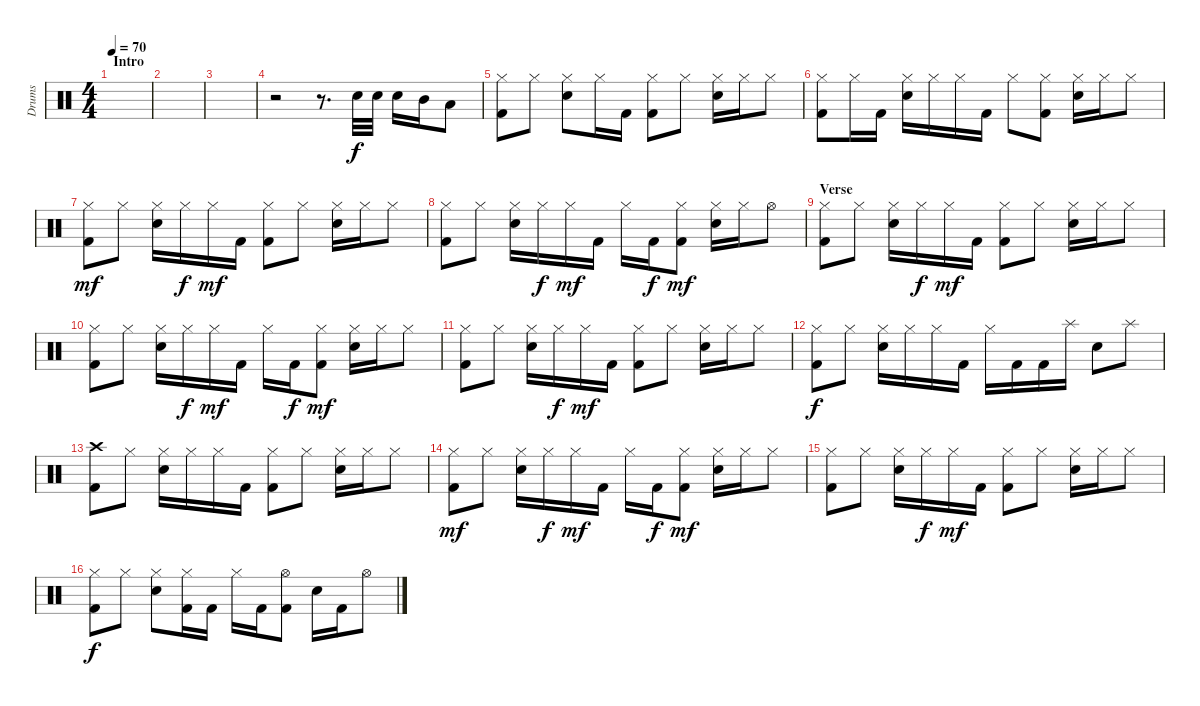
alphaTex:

\track ("Drums" "Drums") {instrument percussion}
\staff {score}
\articulation defaults
\ts (4 4)
\section ("" "Intro")
\tempo 70
\clef neutral
\ks c
|
|
|
r.2 r.8{d} "Electric Snare (hit)".32 "Electric Snare (hit)".32 "Electric Snare (hit)".16 "Mid Tom (hit)".16 "Low Tom (hit)".8 |
("Hi-Hat (closed)" "Kick (hit) 2").8 "Hi-Hat (closed)".8 ("Hi-Hat (closed)" "Electric Snare (hit)").8 "Hi-Hat (closed)".16 "Kick (hit) 2".16 ("Hi-Hat (closed)" "Kick (hit) 2").8 "Hi-Hat (closed)".8 ("Hi-Hat (closed)" "Electric Snare (hit)").16 "Hi-Hat (closed)".16 "Hi-Hat (closed)".8 |
("Hi-Hat (closed)" "Kick (hit) 2").8{dy f} "Hi-Hat (closed)".16 "Kick (hit) 2".16 ("Hi-Hat (closed)" "Electric Snare (hit)").16 "Hi-Hat (closed)".16 "Hi-Hat (closed)".16 "Kick (hit) 2".16 "Hi-Hat (closed)".8 ("Hi-Hat (closed)" "Kick (hit) 2").8 ("Hi-Hat (closed)" "Electric Snare (hit)").16 "Hi-Hat (closed)".16 "Hi-Hat (closed)".8 |
("Hi-Hat (closed)" "Kick (hit) 2").8{dy mf} "Hi-Hat (closed)".8 ("Hi-Hat (closed)" "Electric Snare (hit)").16 "Hi-Hat (closed)".16{dy f} "Hi-Hat (closed)".16{dy mf} "Kick (hit) 2".16 ("Hi-Hat (closed)" "Kick (hit) 2").8 "Hi-Hat (closed)".8 ("Hi-Hat (closed)" "Electric Snare (hit)").16 "Hi-Hat (closed)".16 "Hi-Hat (closed)".8 |
("Hi-Hat (closed)" "Kick (hit) 2").8 "Hi-Hat (closed)".8 ("Hi-Hat (closed)" "Electric Snare (hit)").16 "Hi-Hat (closed)".16{dy f} "Hi-Hat (closed)".16{dy mf} "Kick (hit) 2".16 "Hi-Hat (closed)".16 "Kick (hit) 2".16{dy f} ("Hi-Hat (closed)" "Kick (hit) 2").8{dy mf} ("Hi-Hat (closed)" "Electric Snare (hit)").16 "Hi-Hat (closed)".16 "Hi-Hat (open)".8 |
\section ("" "Verse")
("Hi-Hat (closed)" "Kick (hit) 2").8 "Hi-Hat (closed)".8 ("Hi-Hat (closed)" "Electric Snare (hit)").16 "Hi-Hat (closed)".16{dy f} "Hi-Hat (closed)".16{dy mf} "Kick (hit) 2".16 ("Hi-Hat (closed)" "Kick (hit) 2").8 "Hi-Hat (closed)".8 ("Hi-Hat (closed)" "Electric Snare (hit)").16 "Hi-Hat (closed)".16 "Hi-Hat (closed)".8 |
("Hi-Hat (closed)" "Kick (hit) 2").8 "Hi-Hat (closed)".8 ("Hi-Hat (closed)" "Electric Snare (hit)").16 "Hi-Hat (closed)".16{dy f} "Hi-Hat (closed)".16{dy mf} "Kick (hit) 2".16 "Hi-Hat (closed)".16 "Kick (hit) 2".16{dy f} ("Hi-Hat (closed)" "Kick (hit) 2").8{dy mf} ("Hi-Hat (closed)" "Electric Snare (hit)").16 "Hi-Hat (closed)".16 "Hi-Hat (closed)".8 |
("Hi-Hat (closed)" "Kick (hit) 2").8 "Hi-Hat (closed)".8 ("Hi-Hat (closed)" "Electric Snare (hit)").16 "Hi-Hat (closed)".16{dy f} "Hi-Hat (closed)".16{dy mf} "Kick (hit) 2".16 ("Hi-Hat (closed)" "Kick (hit) 2").8 "Hi-Hat (closed)".8 ("Hi-Hat (closed)" "Electric Snare (hit)").16 "Hi-Hat (closed)".16 "Hi-Hat (closed)".8 |
("Hi-Hat (closed)" "Kick (hit) 2").8{dy f} "Hi-Hat (closed)".8 ("Hi-Hat (closed)" "Electric Snare (hit)").16 "Hi-Hat (closed)".16 "Hi-Hat (closed)".16 "Kick (hit) 2".16 "Hi-Hat (closed)".16 "Kick (hit) 2".16 "Kick (hit) 2".16 "Splash (hit)".16 "Electric Snare (hit)".8 "Splash (hit)".8 |
("Crash high (hit)" "Kick (hit) 2").8 "Hi-Hat (closed)".8 ("Hi-Hat (closed)" "Electric Snare (hit)").16 "Hi-Hat (closed)".16 "Hi-Hat (closed)".16 "Kick (hit) 2".16 ("Hi-Hat (closed)" "Kick (hit) 2").8 "Hi-Hat (closed)".8 ("Hi-Hat (closed)" "Electric Snare (hit)").16 "Hi-Hat (closed)".16 "Hi-Hat (closed)".8 |
("Hi-Hat (closed)" "Kick (hit) 2").8{dy mf} "Hi-Hat (closed)".8 ("Hi-Hat (closed)" "Electric Snare (hit)").16 "Hi-Hat (closed)".16{dy f} "Hi-Hat (closed)".16{dy mf} "Kick (hit) 2".16 "Hi-Hat (closed)".16 "Kick (hit) 2".16{dy f} ("Hi-Hat (closed)" "Kick (hit) 2").8{dy mf} ("Hi-Hat (closed)" "Electric Snare (hit)").16 "Hi-Hat (closed)".16 "Hi-Hat (closed)".8 |
("Hi-Hat (closed)" "Kick (hit) 2").8 "Hi-Hat (closed)".8 ("Hi-Hat (closed)" "Electric Snare (hit)").16 "Hi-Hat (closed)".16{dy f} "Hi-Hat (closed)".16{dy mf} "Kick (hit) 2".16 ("Hi-Hat (closed)" "Kick (hit) 2").8 "Hi-Hat (closed)".8 ("Hi-Hat (closed)" "Electric Snare (hit)").16 "Hi-Hat (closed)".16 "Hi-Hat (closed)".8 |
("Hi-Hat (closed)" "Kick (hit) 2").8{dy f} "Hi-Hat (closed)".8 ("Hi-Hat (closed)" "Electric Snare (hit)").8 ("Hi-Hat (closed)" "Kick (hit) 2").16 "Kick (hit) 2".16 "Hi-Hat (closed)".16 "Kick (hit) 2".16 ("Hi-Hat (open)" "Kick (hit) 2").8 "Electric Snare (hit)".16 "Kick (hit) 2".16 "Hi-Hat (open)".8
